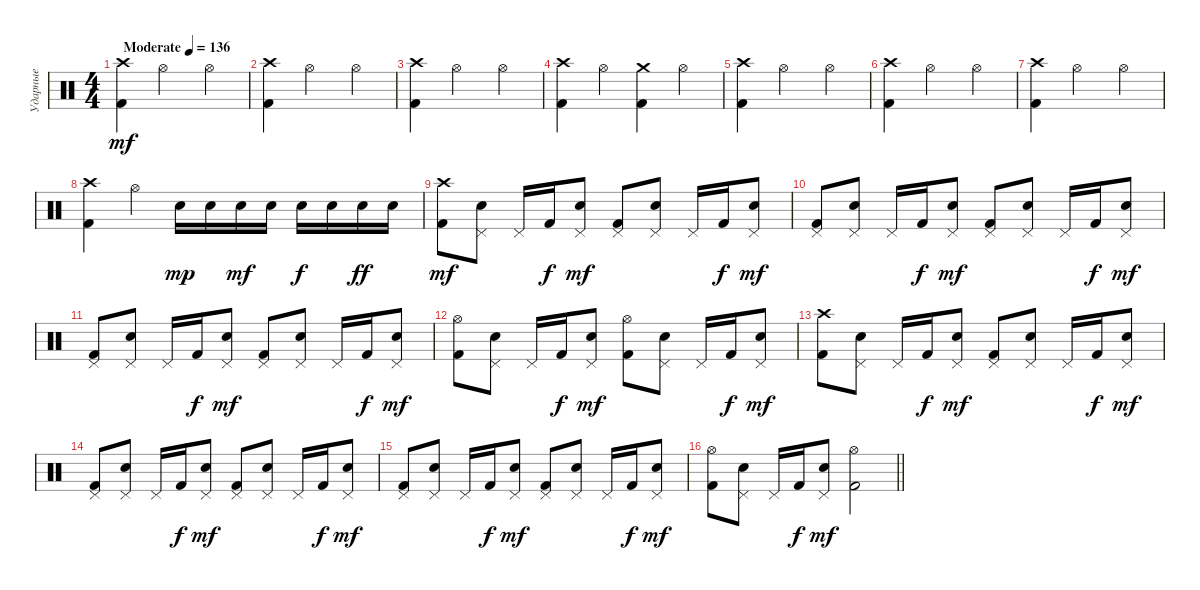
\track ("Ударные" "Ударные") {instrument percussion}
\staff {score}
\articulation defaults
\ts (4 4)
\tempo (136 "Moderate")
\clef neutral
\ks c
("Kick (hit) 2" "Crash high (hit)").4{dy mf} "Hi-Hat (open)".2 "Hi-Hat (open)".4 |
("Kick (hit) 2" "Crash high (hit)").4 "Hi-Hat (open)".2 "Hi-Hat (open)".4 |
("Kick (hit) 2" "Crash high (hit)").4 "Hi-Hat (open)".2 "Hi-Hat (open)".4 |
("Kick (hit) 2" "Crash high (hit)").4 "Hi-Hat (open)".4 ("Kick (hit) 2" "Crash medium (hit)").4 "Hi-Hat (open)".4 |
("Kick (hit) 2" "Crash high (hit)").4 "Hi-Hat (open)".2 "Hi-Hat (open)".4 |
("Kick (hit) 2" "Crash high (hit)").4 "Hi-Hat (open)".2 "Hi-Hat (open)".4 |
("Kick (hit) 2" "Crash high (hit)").4 "Hi-Hat (open)".2 "Hi-Hat (open)".4 |
("Kick (hit) 2" "Crash high (hit)").4 "Hi-Hat (open)".4 "Electric Snare (hit)".16{dy mp} "Electric Snare (hit)".16 "Electric Snare (hit)".16{dy mf} "Electric Snare (hit)".16 "Electric Snare (hit)".16{dy f} "Electric Snare (hit)".16 "Electric Snare (hit)".16{dy ff} "Electric Snare (hit)".16 |
("Kick (hit) 2" "Crash high (hit)").8{dy mf} ("Electric Snare (hit)" "Pedal Hi-Hat (hit)").8 "Pedal Hi-Hat (hit)".16 "Kick (hit) 2".16{dy f} ("Electric Snare (hit)" "Pedal Hi-Hat (hit)").8{dy mf} ("Kick (hit) 2" "Pedal Hi-Hat (hit)").8 ("Electric Snare (hit)" "Pedal Hi-Hat (hit)").8 "Pedal Hi-Hat (hit)".16 "Kick (hit) 2".16{dy f} ("Electric Snare (hit)" "Pedal Hi-Hat (hit)").8{dy mf} |
("Kick (hit) 2" "Pedal Hi-Hat (hit)").8 ("Electric Snare (hit)" "Pedal Hi-Hat (hit)").8 "Pedal Hi-Hat (hit)".16 "Kick (hit) 2".16{dy f} ("Electric Snare (hit)" "Pedal Hi-Hat (hit)").8{dy mf} ("Kick (hit) 2" "Pedal Hi-Hat (hit)").8 ("Electric Snare (hit)" "Pedal Hi-Hat (hit)").8 "Pedal Hi-Hat (hit)".16 "Kick (hit) 2".16{dy f} ("Electric Snare (hit)" "Pedal Hi-Hat (hit)").8{dy mf} |
("Kick (hit) 2" "Pedal Hi-Hat (hit)").8 ("Electric Snare (hit)" "Pedal Hi-Hat (hit)").8 "Pedal Hi-Hat (hit)".16 "Kick (hit) 2".16{dy f} ("Electric Snare (hit)" "Pedal Hi-Hat (hit)").8{dy mf} ("Kick (hit) 2" "Pedal Hi-Hat (hit)").8 ("Electric Snare (hit)" "Pedal Hi-Hat (hit)").8 "Pedal Hi-Hat (hit)".16 "Kick (hit) 2".16{dy f} ("Electric Snare (hit)" "Pedal Hi-Hat (hit)").8{dy mf} |
("Kick (hit) 2" "Hi-Hat (open)").8 ("Electric Snare (hit)" "Pedal Hi-Hat (hit)").8 "Pedal Hi-Hat (hit)".16 "Kick (hit) 2".16{dy f} ("Electric Snare (hit)" "Pedal Hi-Hat (hit)").8{dy mf} ("Kick (hit) 2" "Hi-Hat (open)").8 ("Electric Snare (hit)" "Pedal Hi-Hat (hit)").8 "Pedal Hi-Hat (hit)".16 "Kick (hit) 2".16{dy f} ("Electric Snare (hit)" "Pedal Hi-Hat (hit)").8{dy mf} |
("Kick (hit) 2" "Crash high (hit)").8 ("Electric Snare (hit)" "Pedal Hi-Hat (hit)").8 "Pedal Hi-Hat (hit)".16 "Kick (hit) 2".16{dy f} ("Electric Snare (hit)" "Pedal Hi-Hat (hit)").8{dy mf} ("Kick (hit) 2" "Pedal Hi-Hat (hit)").8 ("Electric Snare (hit)" "Pedal Hi-Hat (hit)").8 "Pedal Hi-Hat (hit)".16 "Kick (hit) 2".16{dy f} ("Electric Snare (hit)" "Pedal Hi-Hat (hit)").8{dy mf} |
("Kick (hit) 2" "Pedal Hi-Hat (hit)").8 ("Electric Snare (hit)" "Pedal Hi-Hat (hit)").8 "Pedal Hi-Hat (hit)".16 "Kick (hit) 2".16{dy f} ("Electric Snare (hit)" "Pedal Hi-Hat (hit)").8{dy mf} ("Kick (hit) 2" "Pedal Hi-Hat (hit)").8 ("Electric Snare (hit)" "Pedal Hi-Hat (hit)").8 "Pedal Hi-Hat (hit)".16 "Kick (hit) 2".16{dy f} ("Electric Snare (hit)" "Pedal Hi-Hat (hit)").8{dy mf} |
("Kick (hit) 2" "Pedal Hi-Hat (hit)").8 ("Electric Snare (hit)" "Pedal Hi-Hat (hit)").8 "Pedal Hi-Hat (hit)".16 "Kick (hit) 2".16{dy f} ("Electric Snare (hit)" "Pedal Hi-Hat (hit)").8{dy mf} ("Kick (hit) 2" "Pedal Hi-Hat (hit)").8 ("Electric Snare (hit)" "Pedal Hi-Hat (hit)").8 "Pedal Hi-Hat (hit)".16 "Kick (hit) 2".16{dy f} ("Electric Snare (hit)" "Pedal Hi-Hat (hit)").8{dy mf} |
\barLineRight lightlight
("Kick (hit) 2" "Hi-Hat (open)").8 ("Electric Snare (hit)" "Pedal Hi-Hat (hit)").8 "Pedal Hi-Hat (hit)".16 "Kick (hit) 2".16{dy f} ("Electric Snare (hit)" "Pedal Hi-Hat (hit)").8{dy mf} ("Kick (hit) 2" "Hi-Hat (open)").2
